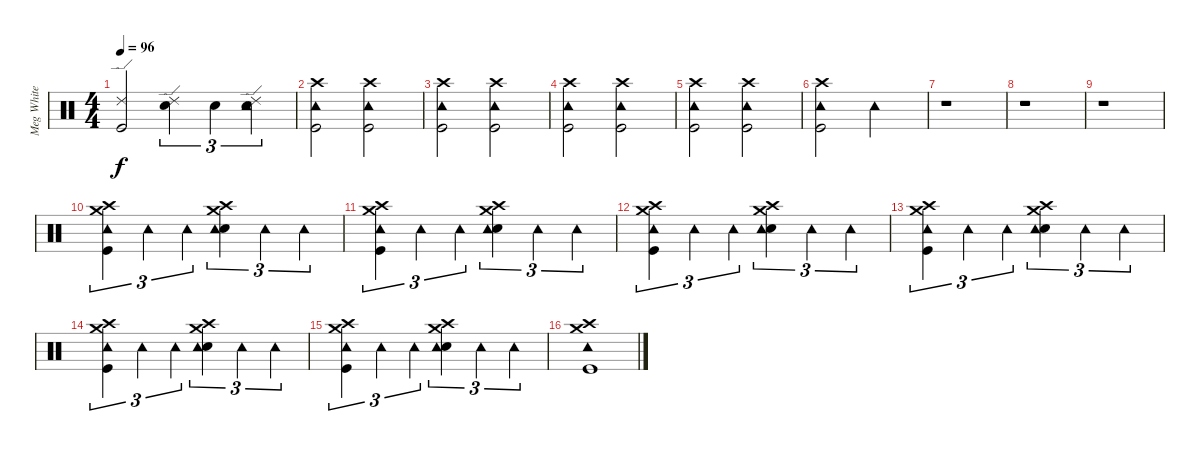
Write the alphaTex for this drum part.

\track ("Meg White" "Meg White") {instrument percussion}
\staff {score}
\articulation defaults
\ts (4 4)
\tempo 96
\clef neutral
\ks c
("Kick (hit)" "Ride (edge) 2").2{dy f} ("Electric Snare (hit)" "Ride (edge) 2").4{tu (3 2)} "Electric Snare (hit)".4{tu (3 2)} ("Electric Snare (hit)" "Tambourine (hit)" "Ride (edge) 2").4{tu (3 2)} |
("Kick (hit)" "Tambourine (hit)" "Crash high (hit)").2 ("Kick (hit)" "Tambourine (hit)" "Crash high (hit)").2 |
("Kick (hit)" "Tambourine (hit)" "Crash high (hit)").2 ("Kick (hit)" "Tambourine (hit)" "Crash high (hit)").2 |
("Kick (hit)" "Tambourine (hit)" "Crash high (hit)").2 ("Kick (hit)" "Tambourine (hit)" "Crash high (hit)").2 |
("Kick (hit)" "Tambourine (hit)" "Crash high (hit)").2 ("Kick (hit)" "Tambourine (hit)" "Crash high (hit)").2 |
("Kick (hit)" "Tambourine (hit)" "Crash high (hit)").2 "Tambourine (hit)".2 |
r.1 |
r.1 |
r.1 |
("Kick (hit)" "Tambourine (hit)" "Crash medium (hit)" "Crash high (hit)").4{tu (3 2)} "Tambourine (hit)".4{tu (3 2)} "Tambourine (hit)".4{tu (3 2)} ("Electric Snare (hit)" "Tambourine (hit)" "Crash medium (hit)" "Crash high (hit)").4{tu (3 2)} "Tambourine (hit)".4{tu (3 2)} "Tambourine (hit)".4{tu (3 2)} |
("Kick (hit)" "Tambourine (hit)" "Crash medium (hit)" "Crash high (hit)").4{tu (3 2)} "Tambourine (hit)".4{tu (3 2)} "Tambourine (hit)".4{tu (3 2)} ("Electric Snare (hit)" "Tambourine (hit)" "Crash medium (hit)" "Crash high (hit)").4{tu (3 2)} "Tambourine (hit)".4{tu (3 2)} "Tambourine (hit)".4{tu (3 2)} |
("Kick (hit)" "Tambourine (hit)" "Crash medium (hit)" "Crash high (hit)").4{tu (3 2)} "Tambourine (hit)".4{tu (3 2)} "Tambourine (hit)".4{tu (3 2)} ("Electric Snare (hit)" "Tambourine (hit)" "Crash medium (hit)" "Crash high (hit)").4{tu (3 2)} "Tambourine (hit)".4{tu (3 2)} "Tambourine (hit)".4{tu (3 2)} |
("Kick (hit)" "Tambourine (hit)" "Crash medium (hit)" "Crash high (hit)").4{tu (3 2)} "Tambourine (hit)".4{tu (3 2)} "Tambourine (hit)".4{tu (3 2)} ("Electric Snare (hit)" "Tambourine (hit)" "Crash medium (hit)" "Crash high (hit)").4{tu (3 2)} "Tambourine (hit)".4{tu (3 2)} "Tambourine (hit)".4{tu (3 2)} |
("Kick (hit)" "Tambourine (hit)" "Crash medium (hit)" "Crash high (hit)").4{tu (3 2)} "Tambourine (hit)".4{tu (3 2)} "Tambourine (hit)".4{tu (3 2)} ("Electric Snare (hit)" "Tambourine (hit)" "Crash medium (hit)" "Crash high (hit)").4{tu (3 2)} "Tambourine (hit)".4{tu (3 2)} "Tambourine (hit)".4{tu (3 2)} |
("Kick (hit)" "Tambourine (hit)" "Crash medium (hit)" "Crash high (hit)").4{tu (3 2)} "Tambourine (hit)".4{tu (3 2)} "Tambourine (hit)".4{tu (3 2)} ("Electric Snare (hit)" "Tambourine (hit)" "Crash medium (hit)" "Crash high (hit)").4{tu (3 2)} "Tambourine (hit)".4{tu (3 2)} "Tambourine (hit)".4{tu (3 2)} |
("Kick (hit)" "Tambourine (hit)" "Crash medium (hit)" "Crash high (hit)").1
